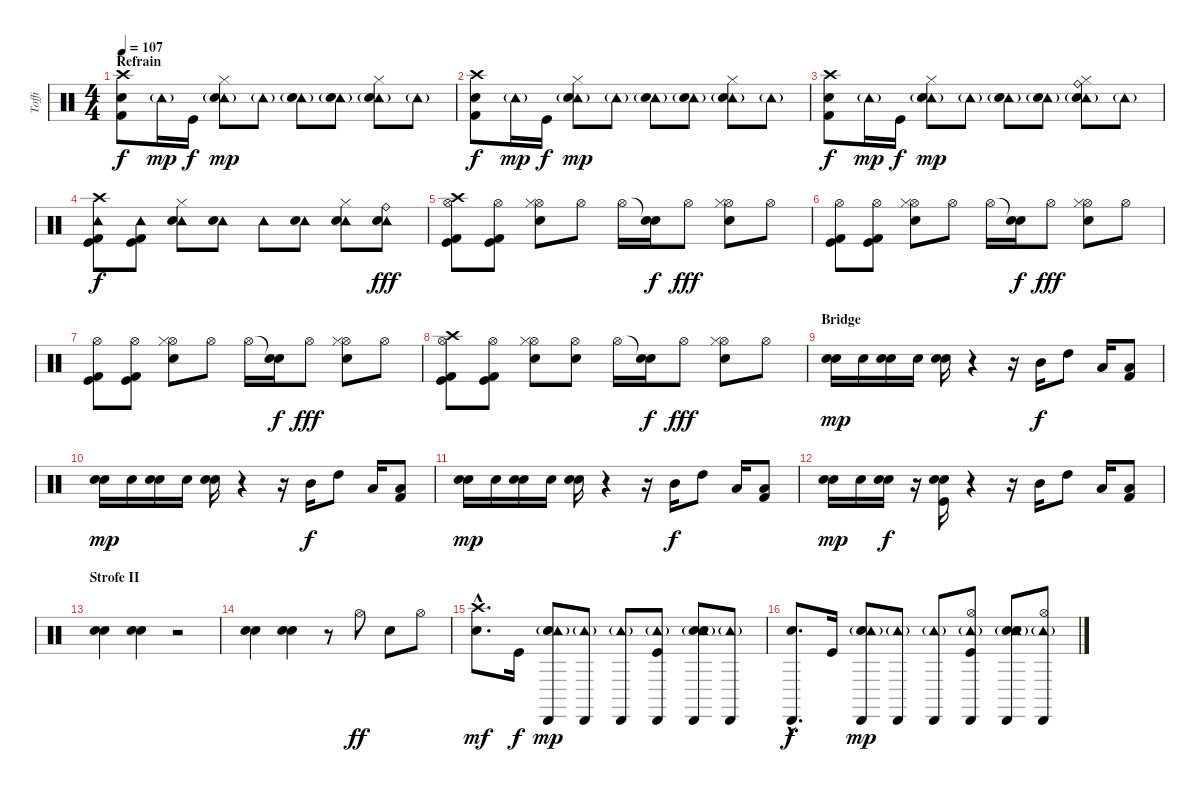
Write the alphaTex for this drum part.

\track ("Toffi" "Toffi") {instrument percussion}
\staff {score}
\articulation defaults
\ts (4 4)
\section ("" "Refrain")
\tempo 107
\clef neutral
\ks c
("Crash high (hit)" "Kick (hit) 2" "Electric Snare (hit)").8{dy f} "Tambourine (hit)"{g}.16{dy mp} "Kick (hit)".16{dy f} ("Tambourine (hit)"{g} "Hi-Hat (closed)" "Snare (hit) 2").8{dy mp} "Tambourine (hit)"{g}.8 ("Tambourine (hit)"{g} "Snare (hit) 2").8 ("Tambourine (hit)"{g} "Electric Snare (hit)").8 ("Tambourine (hit)"{g} "Hi-Hat (closed)" "Snare (hit) 2").8 "Tambourine (hit)"{g}.8 |
("Crash high (hit)" "Kick (hit) 2" "Electric Snare (hit)").8{dy f} "Tambourine (hit)"{g}.16{dy mp} "Kick (hit)".16{dy f} ("Tambourine (hit)"{g} "Hi-Hat (closed)" "Snare (hit) 2").8{dy mp} "Tambourine (hit)"{g}.8 ("Tambourine (hit)"{g} "Snare (hit) 2").8 ("Tambourine (hit)"{g} "Electric Snare (hit)").8 ("Tambourine (hit)"{g} "Hi-Hat (closed)" "Snare (hit) 2").8 "Tambourine (hit)"{g}.8 |
("Crash high (hit)" "Kick (hit) 2" "Electric Snare (hit)").8{dy f} "Tambourine (hit)"{g}.16{dy mp} "Kick (hit)".16{dy f} ("Tambourine (hit)"{g} "Hi-Hat (closed)" "Snare (hit) 2").8{dy mp} "Tambourine (hit)"{g}.8 ("Tambourine (hit)"{g} "Snare (hit) 2").8 ("Tambourine (hit)"{g} "Electric Snare (hit)").8 ("Ride (bell)" "Tambourine (hit)"{g} "Hi-Hat (closed)" "Snare (hit) 2").8 "Tambourine (hit)"{g}.8 |
("Tambourine (hit)" "Crash high (hit)" "Kick (hit) 2" "Kick (hit)").8{dy f} ("Tambourine (hit)" "Kick (hit) 2" "Kick (hit)").8 ("Tambourine (hit)" "Hi-Hat (closed)" "Snare (hit) 2").8 ("Tambourine (hit)" "Electric Snare (hit)").8 "Tambourine (hit)".8 ("Tambourine (hit)" "Snare (hit) 2").8 ("Tambourine (hit)" "Hi-Hat (closed)" "Snare (hit) 2").8 ("Ride (bell)" "Tambourine (hit)" "Electric Snare (hit)").8{dy fff} |
("Hi-Hat (open)" "Crash high (hit)" "Kick (hit) 2" "Kick (hit)").8 ("Hi-Hat (open)" "Kick (hit) 2" "Kick (hit)").8 ("Hi-Hat (open)" "Hi-Hat (closed)" "Snare (hit) 2").8 "Hi-Hat (open)".8 "Hi-Hat (open)".16 ("Snare (hit)"{t} "Snare (hit) 2").16{dy f} "Hi-Hat (open)".8{dy fff} ("Hi-Hat (open)" "Hi-Hat (closed)" "Snare (hit) 2").8 "Hi-Hat (open)".8 |
("Hi-Hat (open)" "Kick (hit) 2" "Kick (hit)").8 ("Hi-Hat (open)" "Kick (hit) 2" "Kick (hit)").8 ("Hi-Hat (open)" "Hi-Hat (closed)" "Snare (hit) 2").8 "Hi-Hat (open)".8 "Hi-Hat (open)".16 ("Snare (hit)"{t} "Snare (hit) 2").16{dy f} "Hi-Hat (open)".8{dy fff} ("Hi-Hat (open)" "Hi-Hat (closed)" "Snare (hit) 2").8 "Hi-Hat (open)".8 |
("Hi-Hat (open)" "Kick (hit) 2" "Kick (hit)").8 ("Hi-Hat (open)" "Kick (hit) 2" "Kick (hit)").8 ("Hi-Hat (open)" "Hi-Hat (closed)" "Snare (hit) 2").8 "Hi-Hat (open)".8 "Hi-Hat (open)".16 ("Snare (hit)"{t} "Snare (hit) 2").16{dy f} "Hi-Hat (open)".8{dy fff} ("Hi-Hat (open)" "Hi-Hat (closed)" "Snare (hit) 2").8 "Hi-Hat (open)".8 |
("Hi-Hat (open)" "Crash high (hit)" "Kick (hit) 2" "Kick (hit)").8 ("Hi-Hat (open)" "Kick (hit) 2" "Kick (hit)").8 ("Hi-Hat (open)" "Hi-Hat (closed)" "Snare (hit) 2").8 ("Hi-Hat (open)" "Electric Snare (hit)").8 "Hi-Hat (open)".16 ("Snare (hit)"{t} "Snare (hit) 2").16{dy f} "Hi-Hat (open)".8{dy fff} ("Hi-Hat (open)" "Hi-Hat (closed)" "Snare (hit) 2").8 "Hi-Hat (open)".8 |
\section ("" "Bridge")
("Snare (hit) 2" "Electric Snare (hit)").16{dy mp} "Snare (hit) 2".16 ("Snare (hit) 2" "Electric Snare (hit)").16 "Snare (hit) 2".16 ("Snare (hit) 2" "Electric Snare (hit)").16 r.4 r.16 "Mid Tom (hit)".16{dy f} "High Tom (hit)".8 "Low Tom (hit)".16 ("Low Tom (hit)" "Kick (hit) 2").8 |
("Snare (hit) 2" "Electric Snare (hit)").16{dy mp} "Snare (hit) 2".16 ("Snare (hit) 2" "Electric Snare (hit)").16 "Snare (hit) 2".16 ("Snare (hit) 2" "Electric Snare (hit)").16 r.4 r.16 "Mid Tom (hit)".16{dy f} "High Tom (hit)".8 "Low Tom (hit)".16 ("Low Tom (hit)" "Kick (hit) 2").8 |
("Snare (hit) 2" "Electric Snare (hit)").16{dy mp} "Snare (hit) 2".16 ("Snare (hit) 2" "Electric Snare (hit)").16 "Snare (hit) 2".16 ("Snare (hit) 2" "Electric Snare (hit)").16 r.4 r.16 "Mid Tom (hit)".16{dy f} "High Tom (hit)".8 "Low Tom (hit)".16 ("Low Tom (hit)" "Kick (hit) 2").8 |
("Snare (hit) 2" "Electric Snare (hit)").16{dy mp} "Snare (hit) 2".16 ("Snare (hit) 2" "Electric Snare (hit)").16{dy f} r.16 ("Snare (hit) 2" "Electric Snare (hit)" "Kick (hit)").16 r.4 r.16 "Mid Tom (hit)".16 "High Tom (hit)".8 "Low Tom (hit)".16 ("Low Tom (hit)" "Kick (hit) 2").8 |
\section ("" "Strofe II")
("Snare (hit) 2" "Electric Snare (hit)").4 ("Snare (hit) 2" "Electric Snare (hit)").4 r.2 |
("Snare (hit) 2" "Electric Snare (hit)").4 ("Snare (hit) 2" "Electric Snare (hit)").4 r.8 "Hi-Hat (open)".8{dy ff} "Electric Snare (hit)".8 "Hi-Hat (open)".8 |
("Crash high (hit)"{hac} "Snare (hit) 2"{hac}).8{d dy mf} "Kick (hit)".16{dy f} ("Snare (hit) 2" "Cabasa (hit)" "Tambourine (hit)"{g}).8{dy mp} ("Cabasa (hit)" "Tambourine (hit)"{g}).8 ("Cabasa (hit)" "Tambourine (hit)"{g}).8 ("Kick (hit)" "Cabasa (hit)" "Tambourine (hit)"{g}).8 ("Electric Snare (hit)" "Snare (hit) 2" "Cabasa (hit)" "Tambourine (hit)"{g}).8 ("Cabasa (hit)" "Tambourine (hit)"{g}).8 |
("Snare (hit) 2"{hac} "Cabasa (hit)"{hac}).8{d dy f} "Kick (hit)".16 ("Snare (hit) 2" "Cabasa (hit)" "Tambourine (hit)"{g}).8{dy mp} ("Cabasa (hit)" "Tambourine (hit)"{g}).8 ("Cabasa (hit)" "Tambourine (hit)"{g}).8 ("Hi-Hat (open)" "Kick (hit)" "Cabasa (hit)" "Tambourine (hit)"{g}).8 ("Electric Snare (hit)" "Snare (hit) 2" "Cabasa (hit)" "Tambourine (hit)"{g}).8 ("Hi-Hat (open)" "Cabasa (hit)" "Tambourine (hit)"{g}).8
